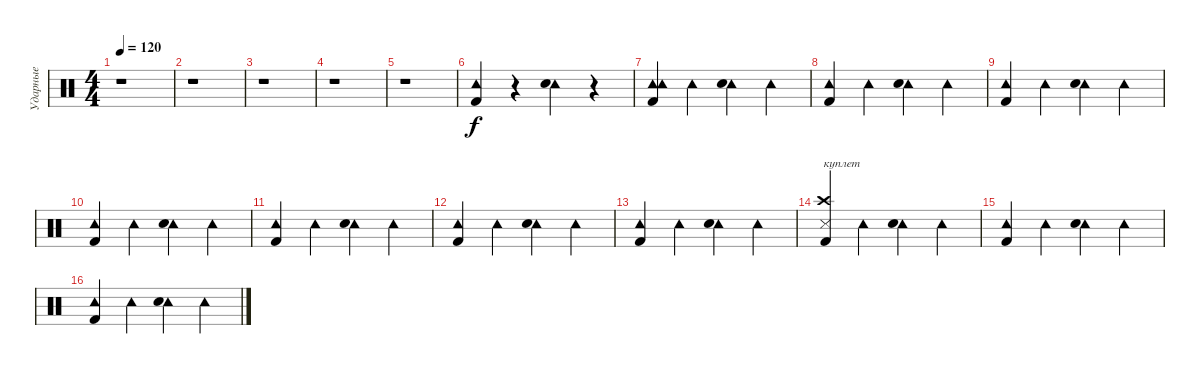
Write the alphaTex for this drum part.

\track ("Ударные" "Ударные") {instrument percussion}
\staff {score}
\articulation defaults
\ts (4 4)
\tempo 120
\clef neutral
\ks c
r.1{dy f} |
r.1 |
r.1 |
r.1 |
r.1 |
("Tambourine (hit)" "Kick (hit) 2").4{volume 16} r.4 ("Tambourine (hit)" "Electric Snare (hit)").4 r.4 |
("Tambourine (hit)" "Tambourine (hit)" "Kick (hit) 2").4 "Tambourine (hit)".4 ("Tambourine (hit)" "Electric Snare (hit)").4 "Tambourine (hit)".4 |
("Tambourine (hit)" "Kick (hit) 2").4 "Tambourine (hit)".4 ("Tambourine (hit)" "Electric Snare (hit)").4 "Tambourine (hit)".4 |
("Tambourine (hit)" "Kick (hit) 2").4 "Tambourine (hit)".4 ("Tambourine (hit)" "Electric Snare (hit)").4 "Tambourine (hit)".4 |
("Tambourine (hit)" "Kick (hit) 2").4 "Tambourine (hit)".4 ("Tambourine (hit)" "Electric Snare (hit)").4 "Tambourine (hit)".4 |
("Tambourine (hit)" "Kick (hit) 2").4 "Tambourine (hit)".4 ("Tambourine (hit)" "Electric Snare (hit)").4 "Tambourine (hit)".4 |
("Tambourine (hit)" "Kick (hit) 2").4 "Tambourine (hit)".4 ("Tambourine (hit)" "Electric Snare (hit)").4 "Tambourine (hit)".4 |
("Tambourine (hit)" "Kick (hit) 2").4 "Tambourine (hit)".4 ("Tambourine (hit)" "Electric Snare (hit)").4 "Tambourine (hit)".4 |
("Crash high (hit)" "Snare (side stick) 3" "Kick (hit) 2").4{txt "куплет"} "Tambourine (hit)".4 ("Tambourine (hit)" "Electric Snare (hit)").4 "Tambourine (hit)".4 |
("Tambourine (hit)" "Kick (hit) 2").4 "Tambourine (hit)".4 ("Tambourine (hit)" "Electric Snare (hit)").4 "Tambourine (hit)".4 |
("Tambourine (hit)" "Kick (hit) 2").4 "Tambourine (hit)".4 ("Tambourine (hit)" "Electric Snare (hit)").4 "Tambourine (hit)".4
